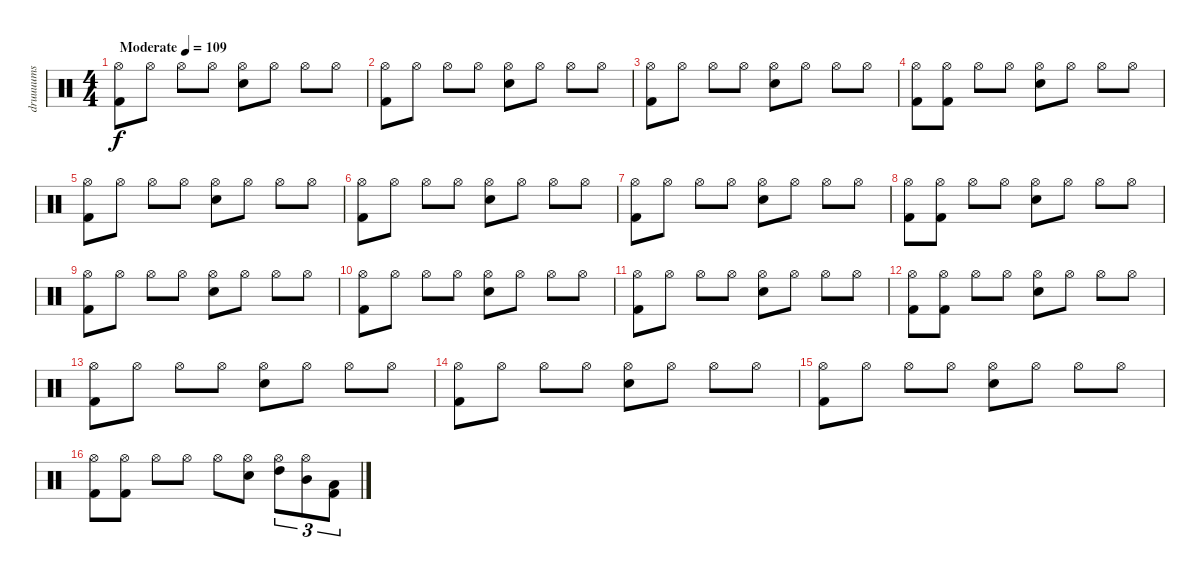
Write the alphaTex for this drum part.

\track ("druuuums" "druuuums") {instrument percussion}
\staff {score}
\articulation defaults
\ts (4 4)
\tempo (109 "Moderate")
\clef neutral
\ks c
("Kick (hit) 2" "Hi-Hat (open)").8{dy f} "Hi-Hat (open)".8 "Hi-Hat (open)".8 "Hi-Hat (open)".8 ("Electric Snare (hit)" "Hi-Hat (open)").8 "Hi-Hat (open)".8 "Hi-Hat (open)".8 "Hi-Hat (open)".8 |
("Kick (hit) 2" "Hi-Hat (open)").8 "Hi-Hat (open)".8 "Hi-Hat (open)".8 "Hi-Hat (open)".8 ("Electric Snare (hit)" "Hi-Hat (open)").8 "Hi-Hat (open)".8 "Hi-Hat (open)".8 "Hi-Hat (open)".8 |
("Kick (hit) 2" "Hi-Hat (open)").8 "Hi-Hat (open)".8 "Hi-Hat (open)".8 "Hi-Hat (open)".8 ("Electric Snare (hit)" "Hi-Hat (open)").8 "Hi-Hat (open)".8 "Hi-Hat (open)".8 "Hi-Hat (open)".8 |
("Kick (hit) 2" "Hi-Hat (open)").8 ("Kick (hit) 2" "Hi-Hat (open)").8 "Hi-Hat (open)".8 "Hi-Hat (open)".8 ("Electric Snare (hit)" "Hi-Hat (open)").8 "Hi-Hat (open)".8 "Hi-Hat (open)".8 "Hi-Hat (open)".8 |
("Kick (hit) 2" "Hi-Hat (open)").8 "Hi-Hat (open)".8 "Hi-Hat (open)".8 "Hi-Hat (open)".8 ("Electric Snare (hit)" "Hi-Hat (open)").8 "Hi-Hat (open)".8 "Hi-Hat (open)".8 "Hi-Hat (open)".8 |
("Kick (hit) 2" "Hi-Hat (open)").8 "Hi-Hat (open)".8 "Hi-Hat (open)".8 "Hi-Hat (open)".8 ("Electric Snare (hit)" "Hi-Hat (open)").8 "Hi-Hat (open)".8 "Hi-Hat (open)".8 "Hi-Hat (open)".8 |
("Kick (hit) 2" "Hi-Hat (open)").8 "Hi-Hat (open)".8 "Hi-Hat (open)".8 "Hi-Hat (open)".8 ("Electric Snare (hit)" "Hi-Hat (open)").8 "Hi-Hat (open)".8 "Hi-Hat (open)".8 "Hi-Hat (open)".8 |
("Kick (hit) 2" "Hi-Hat (open)").8 ("Kick (hit) 2" "Hi-Hat (open)").8 "Hi-Hat (open)".8 "Hi-Hat (open)".8 ("Electric Snare (hit)" "Hi-Hat (open)").8 "Hi-Hat (open)".8 "Hi-Hat (open)".8 "Hi-Hat (open)".8 |
("Kick (hit) 2" "Hi-Hat (open)").8 "Hi-Hat (open)".8 "Hi-Hat (open)".8 "Hi-Hat (open)".8 ("Electric Snare (hit)" "Hi-Hat (open)").8 "Hi-Hat (open)".8 "Hi-Hat (open)".8 "Hi-Hat (open)".8 |
("Kick (hit) 2" "Hi-Hat (open)").8 "Hi-Hat (open)".8 "Hi-Hat (open)".8 "Hi-Hat (open)".8 ("Electric Snare (hit)" "Hi-Hat (open)").8 "Hi-Hat (open)".8 "Hi-Hat (open)".8 "Hi-Hat (open)".8 |
("Kick (hit) 2" "Hi-Hat (open)").8 "Hi-Hat (open)".8 "Hi-Hat (open)".8 "Hi-Hat (open)".8 ("Electric Snare (hit)" "Hi-Hat (open)").8 "Hi-Hat (open)".8 "Hi-Hat (open)".8 "Hi-Hat (open)".8 |
("Kick (hit) 2" "Hi-Hat (open)").8 ("Kick (hit) 2" "Hi-Hat (open)").8 "Hi-Hat (open)".8 "Hi-Hat (open)".8 ("Electric Snare (hit)" "Hi-Hat (open)").8 "Hi-Hat (open)".8 "Hi-Hat (open)".8 "Hi-Hat (open)".8 |
("Kick (hit) 2" "Hi-Hat (open)").8 "Hi-Hat (open)".8 "Hi-Hat (open)".8 "Hi-Hat (open)".8 ("Electric Snare (hit)" "Hi-Hat (open)").8 "Hi-Hat (open)".8 "Hi-Hat (open)".8 "Hi-Hat (open)".8 |
("Kick (hit) 2" "Hi-Hat (open)").8 "Hi-Hat (open)".8 "Hi-Hat (open)".8 "Hi-Hat (open)".8 ("Electric Snare (hit)" "Hi-Hat (open)").8 "Hi-Hat (open)".8 "Hi-Hat (open)".8 "Hi-Hat (open)".8 |
("Kick (hit) 2" "Hi-Hat (open)").8 "Hi-Hat (open)".8 "Hi-Hat (open)".8 "Hi-Hat (open)".8 ("Electric Snare (hit)" "Hi-Hat (open)").8 "Hi-Hat (open)".8 "Hi-Hat (open)".8 "Hi-Hat (open)".8 |
("Kick (hit) 2" "Hi-Hat (open)").8 ("Kick (hit) 2" "Hi-Hat (open)").8 "Hi-Hat (open)".8 "Hi-Hat (open)".8 "Hi-Hat (open)".8 ("Electric Snare (hit)" "Hi-Hat (open)").8 ("High Tom (hit)" "Hi-Hat (open)").8{tu (3 2)} ("Mid Tom (hit)" "Hi-Hat (open)").8{tu (3 2)} ("Low Tom (hit)" "Kick (hit) 2").8{tu (3 2)}
